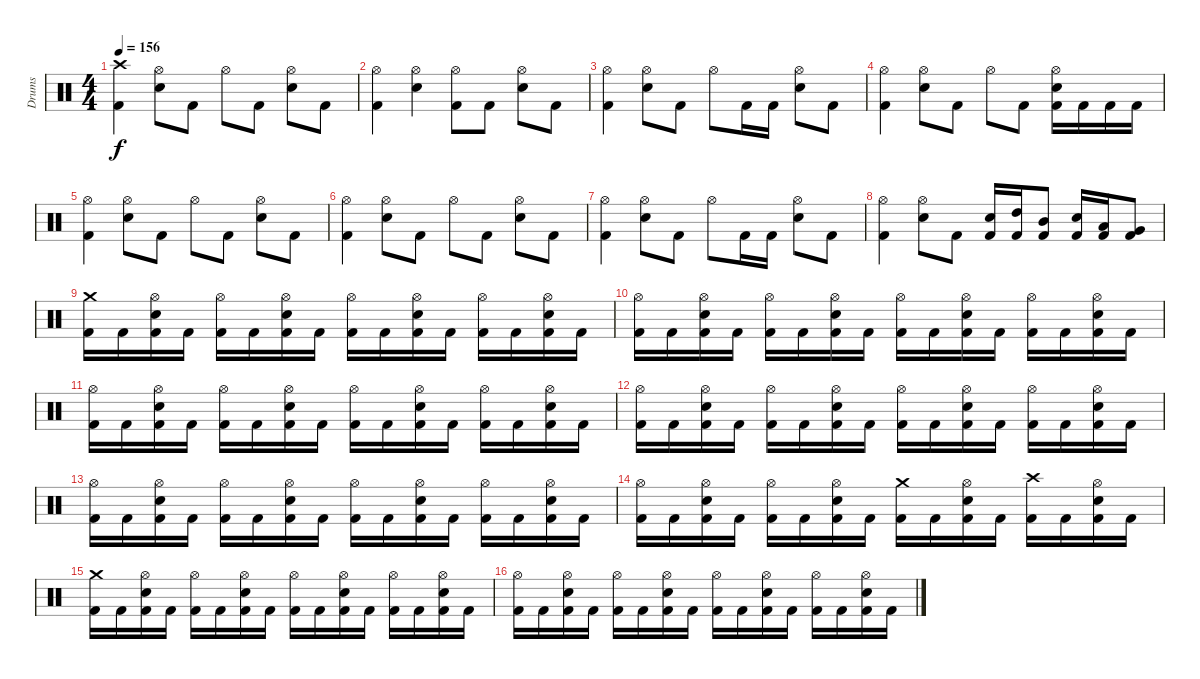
\track ("Drums" "Drums") {instrument percussion}
\staff {score}
\articulation defaults
\ts (4 4)
\section ("" "")
\tempo 156
\clef neutral
\ks c
("Kick (hit) 2" "Crash high (hit)").4{dy f} ("Snare (hit) 2" "Hi-Hat (open)").8 "Kick (hit) 2".8 "Hi-Hat (open)".8 "Kick (hit) 2".8 ("Snare (hit) 2" "Hi-Hat (open)").8 "Kick (hit) 2".8 |
("Kick (hit) 2" "Hi-Hat (open)").4 ("Snare (hit) 2" "Hi-Hat (open)").4 ("Kick (hit) 2" "Hi-Hat (open)").8 "Kick (hit) 2".8 ("Snare (hit) 2" "Hi-Hat (open)").8 "Kick (hit) 2".8 |
("Kick (hit) 2" "Hi-Hat (open)").4 ("Snare (hit) 2" "Hi-Hat (open)").8 "Kick (hit) 2".8 "Hi-Hat (open)".8 "Kick (hit) 2".16 "Kick (hit) 2".16 ("Snare (hit) 2" "Hi-Hat (open)").8 "Kick (hit) 2".8 |
("Kick (hit) 2" "Hi-Hat (open)").4 ("Snare (hit) 2" "Hi-Hat (open)").8 "Kick (hit) 2".8 "Hi-Hat (open)".8 "Kick (hit) 2".8 ("Kick (hit) 2" "Snare (hit) 2" "Hi-Hat (open)").16 "Kick (hit) 2".16 "Kick (hit) 2".16 "Kick (hit) 2".16 |
("Kick (hit) 2" "Hi-Hat (open)").4 ("Snare (hit) 2" "Hi-Hat (open)").8 "Kick (hit) 2".8 "Hi-Hat (open)".8 "Kick (hit) 2".8 ("Snare (hit) 2" "Hi-Hat (open)").8 "Kick (hit) 2".8 |
("Kick (hit) 2" "Hi-Hat (open)").4 ("Snare (hit) 2" "Hi-Hat (open)").8 "Kick (hit) 2".8 "Hi-Hat (open)".8 "Kick (hit) 2".8 ("Snare (hit) 2" "Hi-Hat (open)").8 "Kick (hit) 2".8 |
("Kick (hit) 2" "Hi-Hat (open)").4 ("Snare (hit) 2" "Hi-Hat (open)").8 "Kick (hit) 2".8 "Hi-Hat (open)".8 "Kick (hit) 2".16 "Kick (hit) 2".16 ("Snare (hit) 2" "Hi-Hat (open)").8 "Kick (hit) 2".8 |
("Kick (hit) 2" "Hi-Hat (open)").4 ("Snare (hit) 2" "Hi-Hat (open)").8 "Kick (hit) 2".8 ("Kick (hit) 2" "Snare (hit) 2").16 ("Kick (hit) 2" "High Tom (hit)").16 ("Kick (hit) 2" "Mid Tom (hit)").8 ("Kick (hit) 2" "Snare (hit) 2").16 ("Kick (hit) 2" "Low Tom (hit)").16 ("Kick (hit) 2" "Very Low Tom (hit)").8 |
("Kick (hit) 2" "Crash medium (hit)").16 "Kick (hit) 2".16 ("Kick (hit) 2" "Snare (hit) 2" "Hi-Hat (open)").16 "Kick (hit) 2".16 ("Kick (hit) 2" "Hi-Hat (open)").16 "Kick (hit) 2".16 ("Kick (hit) 2" "Snare (hit) 2" "Hi-Hat (open)").16 "Kick (hit) 2".16 ("Kick (hit) 2" "Hi-Hat (open)").16 "Kick (hit) 2".16 ("Kick (hit) 2" "Snare (hit) 2" "Hi-Hat (open)").16 "Kick (hit) 2".16 ("Kick (hit) 2" "Hi-Hat (open)").16 "Kick (hit) 2".16 ("Kick (hit) 2" "Snare (hit) 2" "Hi-Hat (open)").16 "Kick (hit) 2".16 |
("Kick (hit) 2" "Hi-Hat (open)").16 "Kick (hit) 2".16 ("Kick (hit) 2" "Snare (hit) 2" "Hi-Hat (open)").16 "Kick (hit) 2".16 ("Kick (hit) 2" "Hi-Hat (open)").16 "Kick (hit) 2".16 ("Kick (hit) 2" "Snare (hit) 2" "Hi-Hat (open)").16 "Kick (hit) 2".16 ("Kick (hit) 2" "Hi-Hat (open)").16 "Kick (hit) 2".16 ("Kick (hit) 2" "Snare (hit) 2" "Hi-Hat (open)").16 "Kick (hit) 2".16 ("Kick (hit) 2" "Hi-Hat (open)").16 "Kick (hit) 2".16 ("Kick (hit) 2" "Snare (hit) 2" "Hi-Hat (open)").16 "Kick (hit) 2".16 |
("Kick (hit) 2" "Hi-Hat (open)").16 "Kick (hit) 2".16 ("Kick (hit) 2" "Snare (hit) 2" "Hi-Hat (open)").16 "Kick (hit) 2".16 ("Kick (hit) 2" "Hi-Hat (open)").16 "Kick (hit) 2".16 ("Kick (hit) 2" "Snare (hit) 2" "Hi-Hat (open)").16 "Kick (hit) 2".16 ("Kick (hit) 2" "Hi-Hat (open)").16 "Kick (hit) 2".16 ("Kick (hit) 2" "Snare (hit) 2" "Hi-Hat (open)").16 "Kick (hit) 2".16 ("Kick (hit) 2" "Hi-Hat (open)").16 "Kick (hit) 2".16 ("Kick (hit) 2" "Snare (hit) 2" "Hi-Hat (open)").16 "Kick (hit) 2".16 |
("Kick (hit) 2" "Hi-Hat (open)").16 "Kick (hit) 2".16 ("Kick (hit) 2" "Snare (hit) 2" "Hi-Hat (open)").16 "Kick (hit) 2".16 ("Kick (hit) 2" "Hi-Hat (open)").16 "Kick (hit) 2".16 ("Kick (hit) 2" "Snare (hit) 2" "Hi-Hat (open)").16 "Kick (hit) 2".16 ("Kick (hit) 2" "Hi-Hat (open)").16 "Kick (hit) 2".16 ("Kick (hit) 2" "Snare (hit) 2" "Hi-Hat (open)").16 "Kick (hit) 2".16 ("Kick (hit) 2" "Hi-Hat (open)").16 "Kick (hit) 2".16 ("Kick (hit) 2" "Snare (hit) 2" "Hi-Hat (open)").16 "Kick (hit) 2".16 |
("Kick (hit) 2" "Hi-Hat (open)").16 "Kick (hit) 2".16 ("Kick (hit) 2" "Snare (hit) 2" "Hi-Hat (open)").16 "Kick (hit) 2".16 ("Kick (hit) 2" "Hi-Hat (open)").16 "Kick (hit) 2".16 ("Kick (hit) 2" "Snare (hit) 2" "Hi-Hat (open)").16 "Kick (hit) 2".16 ("Kick (hit) 2" "Hi-Hat (open)").16 "Kick (hit) 2".16 ("Kick (hit) 2" "Snare (hit) 2" "Hi-Hat (open)").16 "Kick (hit) 2".16 ("Kick (hit) 2" "Hi-Hat (open)").16 "Kick (hit) 2".16 ("Kick (hit) 2" "Snare (hit) 2" "Hi-Hat (open)").16 "Kick (hit) 2".16 |
("Kick (hit) 2" "Hi-Hat (open)").16 "Kick (hit) 2".16 ("Kick (hit) 2" "Snare (hit) 2" "Hi-Hat (open)").16 "Kick (hit) 2".16 ("Kick (hit) 2" "Hi-Hat (open)").16 "Kick (hit) 2".16 ("Kick (hit) 2" "Snare (hit) 2" "Hi-Hat (open)").16 "Kick (hit) 2".16 ("Kick (hit) 2" "Crash medium (hit)").16 "Kick (hit) 2".16 ("Kick (hit) 2" "Snare (hit) 2" "Hi-Hat (open)").16 "Kick (hit) 2".16 ("Kick (hit) 2" "Crash high (hit)").16 "Kick (hit) 2".16 ("Kick (hit) 2" "Snare (hit) 2" "Hi-Hat (open)").16 "Kick (hit) 2".16 |
("Kick (hit) 2" "Crash medium (hit)").16 "Kick (hit) 2".16 ("Kick (hit) 2" "Snare (hit) 2" "Hi-Hat (open)").16 "Kick (hit) 2".16 ("Kick (hit) 2" "Hi-Hat (open)").16 "Kick (hit) 2".16 ("Kick (hit) 2" "Snare (hit) 2" "Hi-Hat (open)").16 "Kick (hit) 2".16 ("Kick (hit) 2" "Hi-Hat (open)").16 "Kick (hit) 2".16 ("Kick (hit) 2" "Snare (hit) 2" "Hi-Hat (open)").16 "Kick (hit) 2".16 ("Kick (hit) 2" "Hi-Hat (open)").16 "Kick (hit) 2".16 ("Kick (hit) 2" "Snare (hit) 2" "Hi-Hat (open)").16 "Kick (hit) 2".16 |
("Kick (hit) 2" "Hi-Hat (open)").16 "Kick (hit) 2".16 ("Kick (hit) 2" "Snare (hit) 2" "Hi-Hat (open)").16 "Kick (hit) 2".16 ("Kick (hit) 2" "Hi-Hat (open)").16 "Kick (hit) 2".16 ("Kick (hit) 2" "Snare (hit) 2" "Hi-Hat (open)").16 "Kick (hit) 2".16 ("Kick (hit) 2" "Hi-Hat (open)").16 "Kick (hit) 2".16 ("Kick (hit) 2" "Snare (hit) 2" "Hi-Hat (open)").16 "Kick (hit) 2".16 ("Kick (hit) 2" "Hi-Hat (open)").16 "Kick (hit) 2".16 ("Kick (hit) 2" "Snare (hit) 2" "Hi-Hat (open)").16 "Kick (hit) 2".16
